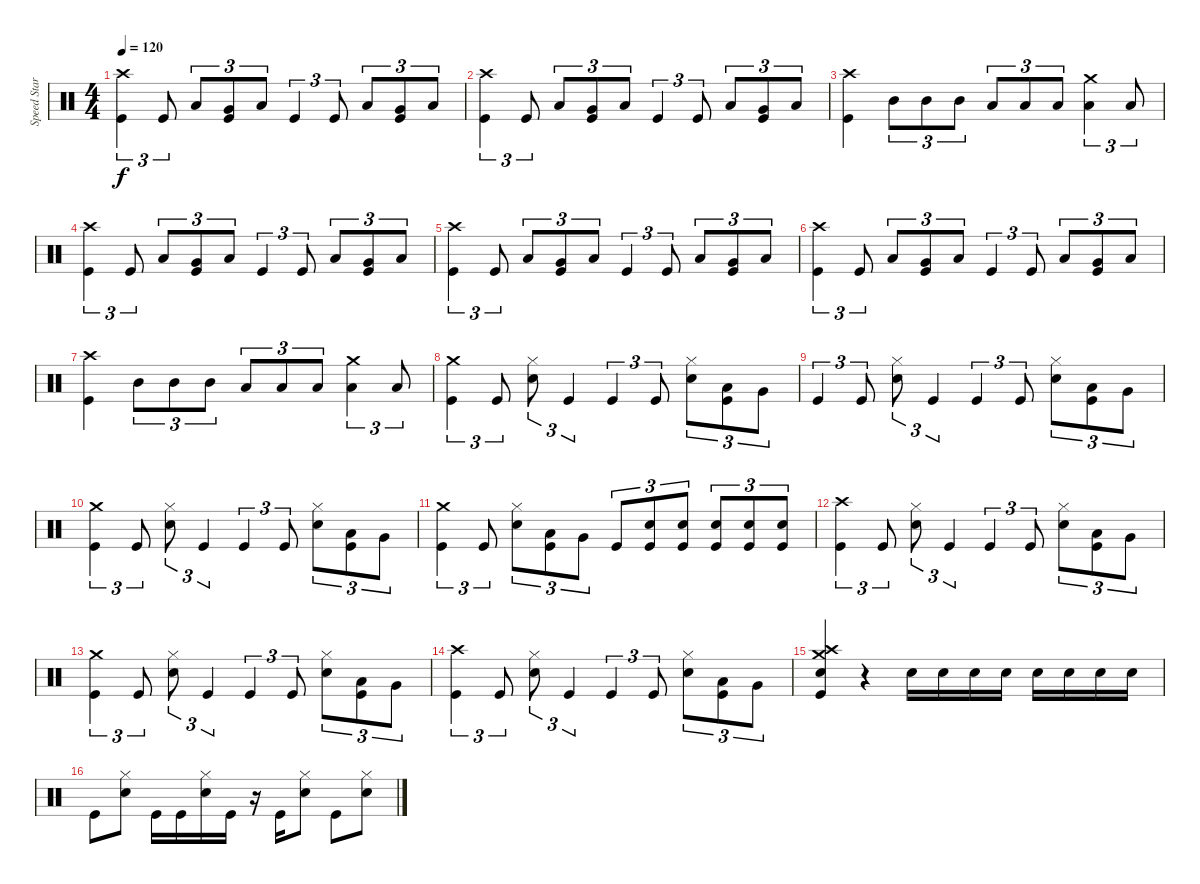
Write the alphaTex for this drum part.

\track ("Speed Star" "Speed Star") {instrument percussion}
\staff {score}
\articulation defaults
\ts (4 4)
\tempo 120
\clef neutral
\ks c
("Kick (hit)" "Crash high (hit)").4{tu (3 2) dy f} "Kick (hit)".8{tu (3 2)} "Low Tom (hit)".8{tu (3 2)} ("Kick (hit)" "Very Low Tom (hit)").8{tu (3 2)} "Low Floor Tom (hit)".8{tu (3 2)} "Kick (hit)".4{tu (3 2)} "Kick (hit)".8{tu (3 2)} "Low Tom (hit)".8{tu (3 2)} ("Kick (hit)" "Very Low Tom (hit)").8{tu (3 2)} "Low Floor Tom (hit)".8{tu (3 2)} |
("Kick (hit)" "Crash high (hit)").4{tu (3 2)} "Kick (hit)".8{tu (3 2)} "Low Tom (hit)".8{tu (3 2)} ("Kick (hit)" "Very Low Tom (hit)").8{tu (3 2)} "Low Floor Tom (hit)".8{tu (3 2)} "Kick (hit)".4{tu (3 2)} "Kick (hit)".8{tu (3 2)} "Low Tom (hit)".8{tu (3 2)} ("Kick (hit)" "Very Low Tom (hit)").8{tu (3 2)} "Low Floor Tom (hit)".8{tu (3 2)} |
("Kick (hit)" "Crash high (hit)").4 "Mid Tom (hit)".8{tu (3 2)} "Mid Tom (hit)".8{tu (3 2)} "Mid Tom (hit)".8{tu (3 2)} "Low Tom (hit)".8{tu (3 2)} "Low Tom (hit)".8{tu (3 2)} "Low Tom (hit)".8{tu (3 2)} ("Crash medium (hit)" "Low Floor Tom (hit)").4{tu (3 2)} "Low Floor Tom (hit)".8{tu (3 2)} |
("Kick (hit)" "Crash high (hit)").4{tu (3 2)} "Kick (hit)".8{tu (3 2)} "Low Tom (hit)".8{tu (3 2)} ("Kick (hit)" "Very Low Tom (hit)").8{tu (3 2)} "Low Floor Tom (hit)".8{tu (3 2)} "Kick (hit)".4{tu (3 2)} "Kick (hit)".8{tu (3 2)} "Low Tom (hit)".8{tu (3 2)} ("Kick (hit)" "Very Low Tom (hit)").8{tu (3 2)} "Low Floor Tom (hit)".8{tu (3 2)} |
("Kick (hit)" "Crash high (hit)").4{tu (3 2)} "Kick (hit)".8{tu (3 2)} "Low Tom (hit)".8{tu (3 2)} ("Kick (hit)" "Very Low Tom (hit)").8{tu (3 2)} "Low Floor Tom (hit)".8{tu (3 2)} "Kick (hit)".4{tu (3 2)} "Kick (hit)".8{tu (3 2)} "Low Tom (hit)".8{tu (3 2)} ("Kick (hit)" "Very Low Tom (hit)").8{tu (3 2)} "Low Floor Tom (hit)".8{tu (3 2)} |
("Kick (hit)" "Crash high (hit)").4{tu (3 2)} "Kick (hit)".8{tu (3 2)} "Low Tom (hit)".8{tu (3 2)} ("Kick (hit)" "Very Low Tom (hit)").8{tu (3 2)} "Low Floor Tom (hit)".8{tu (3 2)} "Kick (hit)".4{tu (3 2)} "Kick (hit)".8{tu (3 2)} "Low Tom (hit)".8{tu (3 2)} ("Kick (hit)" "Very Low Tom (hit)").8{tu (3 2)} "Low Floor Tom (hit)".8{tu (3 2)} |
("Kick (hit)" "Crash high (hit)").4 "Mid Tom (hit)".8{tu (3 2)} "Mid Tom (hit)".8{tu (3 2)} "Mid Tom (hit)".8{tu (3 2)} "Low Tom (hit)".8{tu (3 2)} "Low Tom (hit)".8{tu (3 2)} "Low Tom (hit)".8{tu (3 2)} ("Crash medium (hit)" "Low Floor Tom (hit)").4{tu (3 2)} "Low Floor Tom (hit)".8{tu (3 2)} |
("Kick (hit)" "Crash medium (hit)").4{tu (3 2)} "Kick (hit)".8{tu (3 2)} ("Snare (hit) 2" "Hi-Hat (closed)").8{tu (3 2)} "Kick (hit)".4{tu (3 2)} "Kick (hit)".4{tu (3 2)} "Kick (hit)".8{tu (3 2)} ("Hi-Hat (closed)" "Snare (hit) 2").8{tu (3 2)} ("Kick (hit)" "Low Floor Tom (hit)").8{tu (3 2)} "Very Low Tom (hit)".8{tu (3 2)} |
"Kick (hit)".4{tu (3 2)} "Kick (hit)".8{tu (3 2)} ("Snare (hit) 2" "Hi-Hat (closed)").8{tu (3 2)} "Kick (hit)".4{tu (3 2)} "Kick (hit)".4{tu (3 2)} "Kick (hit)".8{tu (3 2)} ("Hi-Hat (closed)" "Snare (hit) 2").8{tu (3 2)} ("Kick (hit)" "Low Floor Tom (hit)").8{tu (3 2)} "Very Low Tom (hit)".8{tu (3 2)} |
("Kick (hit)" "Crash medium (hit)").4{tu (3 2)} "Kick (hit)".8{tu (3 2)} ("Snare (hit) 2" "Hi-Hat (closed)").8{tu (3 2)} "Kick (hit)".4{tu (3 2)} "Kick (hit)".4{tu (3 2)} "Kick (hit)".8{tu (3 2)} ("Hi-Hat (closed)" "Snare (hit) 2").8{tu (3 2)} ("Kick (hit)" "Low Floor Tom (hit)").8{tu (3 2)} "Very Low Tom (hit)".8{tu (3 2)} |
("Kick (hit)" "Crash medium (hit)").4{tu (3 2)} "Kick (hit)".8{tu (3 2)} ("Snare (hit) 2" "Hi-Hat (closed)").8{tu (3 2)} ("Kick (hit)" "Low Floor Tom (hit)").8{tu (3 2)} "Very Low Tom (hit)".8{tu (3 2)} "Kick (hit)".8{tu (3 2)} ("Kick (hit)" "Snare (hit) 2").8{tu (3 2)} ("Kick (hit)" "Snare (hit) 2").8{tu (3 2)} ("Kick (hit)" "Snare (hit) 2").8{tu (3 2)} ("Kick (hit)" "Snare (hit) 2").8{tu (3 2)} ("Kick (hit)" "Snare (hit) 2").8{tu (3 2)} |
("Kick (hit)" "Crash high (hit)").4{tu (3 2)} "Kick (hit)".8{tu (3 2)} ("Snare (hit) 2" "Hi-Hat (closed)").8{tu (3 2)} "Kick (hit)".4{tu (3 2)} "Kick (hit)".4{tu (3 2)} "Kick (hit)".8{tu (3 2)} ("Snare (hit) 2" "Hi-Hat (closed)").8{tu (3 2)} ("Kick (hit)" "Low Floor Tom (hit)").8{tu (3 2)} "Very Low Tom (hit)".8{tu (3 2)} |
("Kick (hit)" "Crash medium (hit)").4{tu (3 2)} "Kick (hit)".8{tu (3 2)} ("Snare (hit) 2" "Hi-Hat (closed)").8{tu (3 2)} "Kick (hit)".4{tu (3 2)} "Kick (hit)".4{tu (3 2)} "Kick (hit)".8{tu (3 2)} ("Snare (hit) 2" "Hi-Hat (closed)").8{tu (3 2)} ("Kick (hit)" "Low Floor Tom (hit)").8{tu (3 2)} "Very Low Tom (hit)".8{tu (3 2)} |
("Kick (hit)" "Crash high (hit)").4{tu (3 2)} "Kick (hit)".8{tu (3 2)} ("Snare (hit) 2" "Hi-Hat (closed)").8{tu (3 2)} "Kick (hit)".4{tu (3 2)} "Kick (hit)".4{tu (3 2)} "Kick (hit)".8{tu (3 2)} ("Snare (hit) 2" "Hi-Hat (closed)").8{tu (3 2)} ("Kick (hit)" "Low Floor Tom (hit)").8{tu (3 2)} "Very Low Tom (hit)".8{tu (3 2)} |
("Kick (hit)" "Snare (hit) 2" "Crash high (hit)" "Crash medium (hit)").4 r.4 "Snare (hit) 2".16 "Snare (hit) 2".16 "Snare (hit) 2".16 "Snare (hit) 2".16 "Snare (hit) 2".16 "Snare (hit) 2".16 "Snare (hit) 2".16 "Snare (hit) 2".16 |
"Kick (hit)".8 ("Snare (hit) 2" "Hi-Hat (closed)").8 "Kick (hit)".16 "Kick (hit)".16 ("Snare (hit) 2" "Hi-Hat (closed)").16 "Kick (hit)".16 r.16 "Kick (hit)".16 ("Snare (hit) 2" "Hi-Hat (closed)").8 "Kick (hit)".8 ("Snare (hit) 2" "Hi-Hat (closed)").8
